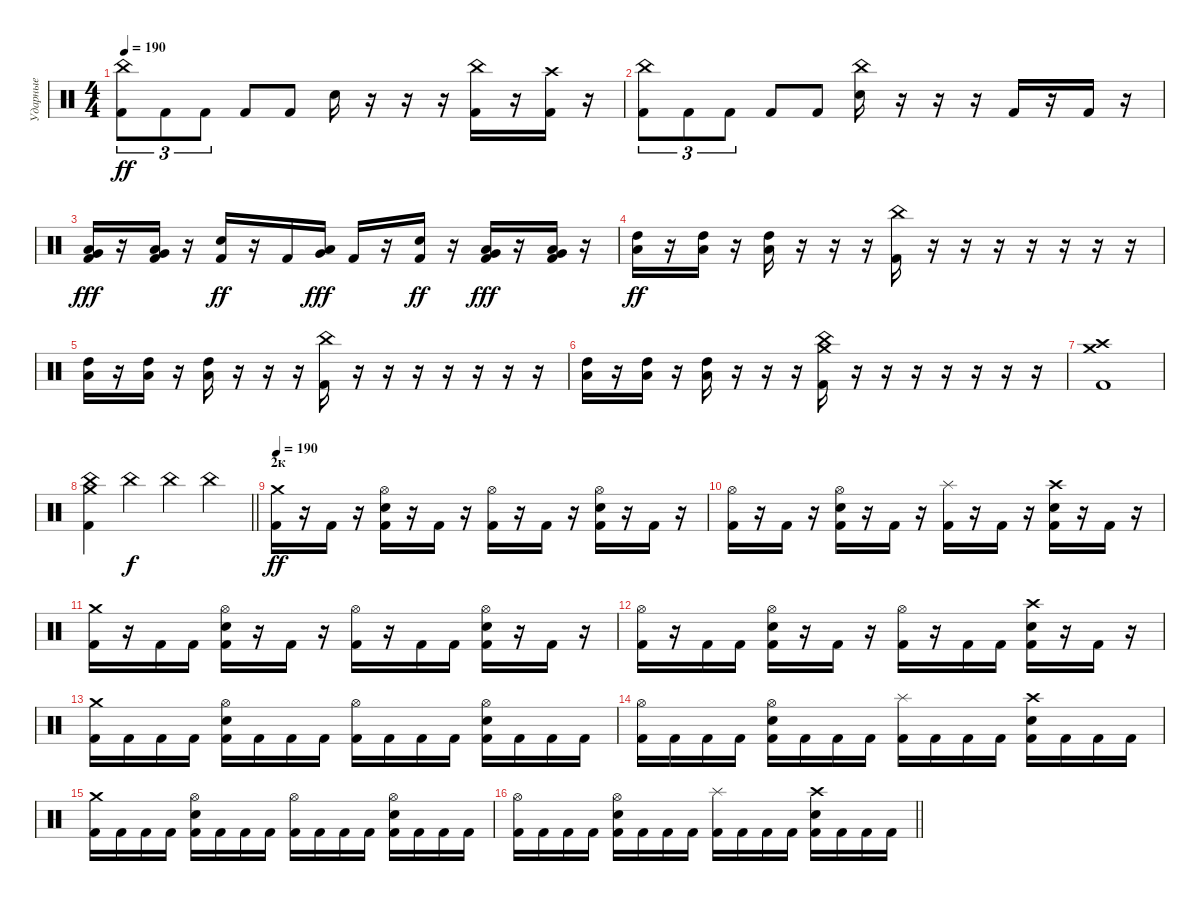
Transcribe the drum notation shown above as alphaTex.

\track ("Ударные" "Ударные") {instrument percussion}
\staff {score}
\articulation defaults
\ts (4 4)
\tempo 190
\clef neutral
\ks c
("Kick (hit) 2" "China (hit)").8{tu (3 2) dy ff} "Kick (hit) 2".8{tu (3 2)} "Kick (hit) 2".8{tu (3 2)} "Kick (hit) 2".8 "Kick (hit) 2".8 "Snare (hit) 2".16 r.16 r.16 r.16 ("Kick (hit) 2" "China (hit)").16 r.16 ("Kick (hit) 2" "Crash high (hit)").16 r.16 |
("Kick (hit) 2" "China (hit)").8{tu (3 2)} "Kick (hit) 2".8{tu (3 2)} "Kick (hit) 2".8{tu (3 2)} "Kick (hit) 2".8 "Kick (hit) 2".8 ("Snare (hit) 2" "China (hit)").16 r.16 r.16 r.16 "Kick (hit) 2".16 r.16 "Kick (hit) 2".16 r.16 |
("Kick (hit) 2" "Very Low Tom (hit)" "Low Tom (hit)").16{dy fff} r.16 ("Kick (hit) 2" "Very Low Tom (hit)" "Low Tom (hit)").16 r.16 ("Kick (hit) 2" "Snare (hit) 2").16{dy ff} r.16 "Kick (hit) 2".16 ("Low Tom (hit)" "Very Low Tom (hit)").16{dy fff} "Kick (hit) 2".16 r.16 ("Kick (hit) 2" "Snare (hit) 2").16{dy ff} r.16 ("Kick (hit) 2" "Low Tom (hit)" "Very Low Tom (hit)").16{dy fff} r.16 ("Kick (hit) 2" "Low Tom (hit)" "Very Low Tom (hit)").16 r.16 |
("Low Tom (hit)" "High Tom (hit)").16{dy ff} r.16 ("Low Tom (hit)" "High Tom (hit)").16 r.16 ("Low Tom (hit)" "High Tom (hit)").16 r.16 r.16 r.16 ("Kick (hit) 2" "China (hit)").16 r.16 r.16 r.16 r.16 r.16 r.16 r.16 |
("Low Tom (hit)" "High Tom (hit)").16 r.16 ("Low Tom (hit)" "High Tom (hit)").16 r.16 ("Low Tom (hit)" "High Tom (hit)").16 r.16 r.16 r.16 ("Kick (hit) 2" "China (hit)").16 r.16 r.16 r.16 r.16 r.16 r.16 r.16 |
("Low Tom (hit)" "High Tom (hit)").16 r.16 ("Low Tom (hit)" "High Tom (hit)").16 r.16 ("Low Tom (hit)" "High Tom (hit)").16 r.16 r.16 r.16 ("Kick (hit) 2" "China (hit)" "Crash medium (hit)").16 r.16 r.16 r.16 r.16 r.16 r.16 r.16 |
("Kick (hit) 2" "Crash medium (hit)" "Crash high (hit)").1 |
\barLineRight lightlight
("Kick (hit) 2" "China (hit)" "Crash medium (hit)").4 "China (hit)".4{dy f} "China (hit)".4 "China (hit)".4 |
\section ("" "2к")
\tempo 190
("Kick (hit) 2" "Crash medium (hit)").16{dy ff} r.16 "Kick (hit) 2".16 r.16 ("Kick (hit) 2" "Snare (hit) 2" "Hi-Hat (open)").16 r.16 "Kick (hit) 2".16 r.16 ("Kick (hit) 2" "Hi-Hat (open)").16 r.16 "Kick (hit) 2".16 r.16 ("Kick (hit) 2" "Snare (hit) 2" "Hi-Hat (open)").16 r.16 "Kick (hit) 2".16 r.16 |
("Kick (hit) 2" "Hi-Hat (open)").16 r.16 "Kick (hit) 2".16 r.16 ("Kick (hit) 2" "Snare (hit) 2" "Hi-Hat (open)").16 r.16 "Kick (hit) 2".16 r.16 ("Kick (hit) 2" "Splash (hit)").16 r.16 "Kick (hit) 2".16 r.16 ("Kick (hit) 2" "Snare (hit) 2" "Crash high (hit)").16 r.16 "Kick (hit) 2".16 r.16 |
("Kick (hit) 2" "Crash medium (hit)").16 r.16 "Kick (hit) 2".16 "Kick (hit) 2".16 ("Kick (hit) 2" "Snare (hit) 2" "Hi-Hat (open)").16 r.16 "Kick (hit) 2".16 r.16 ("Kick (hit) 2" "Hi-Hat (open)").16 r.16 "Kick (hit) 2".16 "Kick (hit) 2".16 ("Kick (hit) 2" "Snare (hit) 2" "Hi-Hat (open)").16 r.16 "Kick (hit) 2".16 r.16 |
("Kick (hit) 2" "Hi-Hat (open)").16 r.16 "Kick (hit) 2".16 "Kick (hit) 2".16 ("Kick (hit) 2" "Snare (hit) 2" "Hi-Hat (open)").16 r.16 "Kick (hit) 2".16 r.16 ("Kick (hit) 2" "Hi-Hat (open)").16 r.16 "Kick (hit) 2".16 "Kick (hit) 2".16 ("Kick (hit) 2" "Snare (hit) 2" "Crash high (hit)").16 r.16 "Kick (hit) 2".16 r.16 |
("Kick (hit) 2" "Crash medium (hit)").16 "Kick (hit) 2".16 "Kick (hit) 2".16 "Kick (hit) 2".16 ("Kick (hit) 2" "Snare (hit) 2" "Hi-Hat (open)").16 "Kick (hit) 2".16 "Kick (hit) 2".16 "Kick (hit) 2".16 ("Kick (hit) 2" "Hi-Hat (open)").16 "Kick (hit) 2".16 "Kick (hit) 2".16 "Kick (hit) 2".16 ("Kick (hit) 2" "Snare (hit) 2" "Hi-Hat (open)").16 "Kick (hit) 2".16 "Kick (hit) 2".16 "Kick (hit) 2".16 |
("Kick (hit) 2" "Hi-Hat (open)").16 "Kick (hit) 2".16 "Kick (hit) 2".16 "Kick (hit) 2".16 ("Kick (hit) 2" "Snare (hit) 2" "Hi-Hat (open)").16 "Kick (hit) 2".16 "Kick (hit) 2".16 "Kick (hit) 2".16 ("Kick (hit) 2" "Splash (hit)").16 "Kick (hit) 2".16 "Kick (hit) 2".16 "Kick (hit) 2".16 ("Kick (hit) 2" "Snare (hit) 2" "Crash high (hit)").16 "Kick (hit) 2".16 "Kick (hit) 2".16 "Kick (hit) 2".16 |
("Kick (hit) 2" "Crash medium (hit)").16 "Kick (hit) 2".16 "Kick (hit) 2".16 "Kick (hit) 2".16 ("Kick (hit) 2" "Snare (hit) 2" "Hi-Hat (open)").16 "Kick (hit) 2".16 "Kick (hit) 2".16 "Kick (hit) 2".16 ("Kick (hit) 2" "Hi-Hat (open)").16 "Kick (hit) 2".16 "Kick (hit) 2".16 "Kick (hit) 2".16 ("Kick (hit) 2" "Snare (hit) 2" "Hi-Hat (open)").16 "Kick (hit) 2".16 "Kick (hit) 2".16 "Kick (hit) 2".16 |
\barLineRight lightlight
("Kick (hit) 2" "Hi-Hat (open)").16 "Kick (hit) 2".16 "Kick (hit) 2".16 "Kick (hit) 2".16 ("Kick (hit) 2" "Snare (hit) 2" "Hi-Hat (open)").16 "Kick (hit) 2".16 "Kick (hit) 2".16 "Kick (hit) 2".16 ("Kick (hit) 2" "Splash (hit)").16 "Kick (hit) 2".16 "Kick (hit) 2".16 "Kick (hit) 2".16 ("Kick (hit) 2" "Snare (hit) 2" "Crash high (hit)").16 "Kick (hit) 2".16 "Kick (hit) 2".16 "Kick (hit) 2".16
